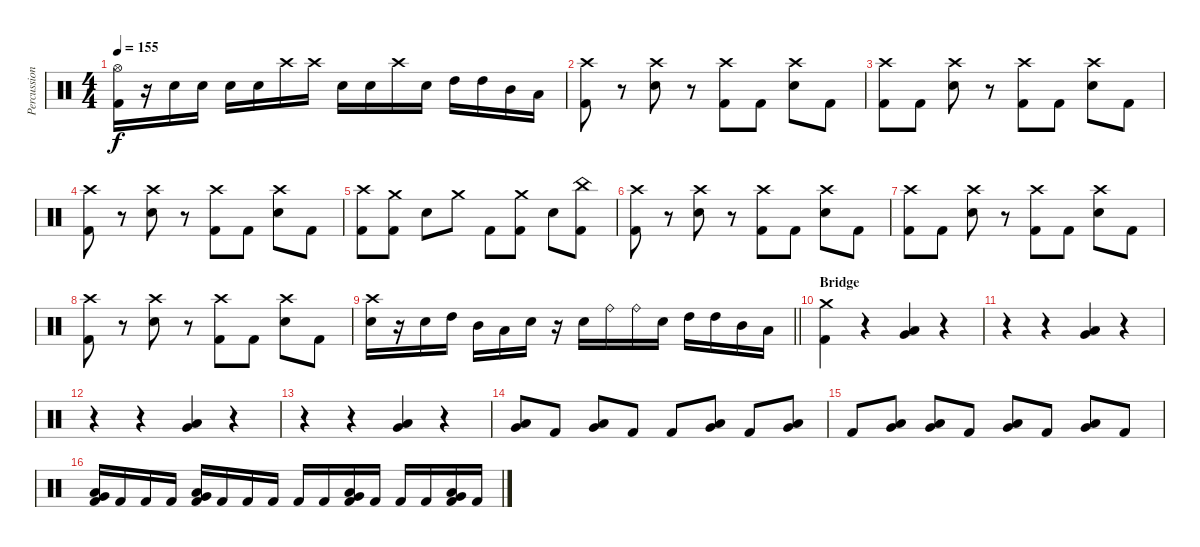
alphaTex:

\track ("Percussion" "Percussion") {instrument percussion}
\staff {score}
\articulation defaults
\ts (4 4)
\tempo 155
\clef neutral
\ks c
("Hi-Hat (open)" "Kick (hit) 2").16{dy f} r.16 "Snare (hit) 2".16 "Snare (hit) 2".16 "Snare (hit) 2".16 "Snare (hit) 2".16 "Crash high (hit)".16 "Crash high (hit)".16 "Snare (hit) 2".16 "Snare (hit) 2".16 "Crash high (hit)".16 "Snare (hit) 2".16 "High Tom (hit)".16 "High Tom (hit)".16 "Mid Tom (hit)".16 "Low Tom (hit)".16 |
("Crash high (hit)" "Kick (hit) 2").8 r.8 ("Crash high (hit)" "Snare (hit) 2").8 r.8 ("Crash high (hit)" "Kick (hit) 2").8 "Kick (hit) 2".8 ("Crash high (hit)" "Snare (hit) 2").8 "Kick (hit) 2".8 |
("Crash high (hit)" "Kick (hit) 2").8 "Kick (hit) 2".8 ("Crash high (hit)" "Snare (hit) 2").8 r.8 ("Crash high (hit)" "Kick (hit) 2").8 "Kick (hit) 2".8 ("Crash high (hit)" "Snare (hit) 2").8 "Kick (hit) 2".8 |
("Crash high (hit)" "Kick (hit) 2").8 r.8 ("Crash high (hit)" "Snare (hit) 2").8 r.8 ("Crash high (hit)" "Kick (hit) 2").8 "Kick (hit) 2".8 ("Crash high (hit)" "Snare (hit) 2").8 "Kick (hit) 2".8 |
("Crash high (hit)" "Kick (hit) 2").8 ("Crash medium (hit)" "Kick (hit) 2").8 "Snare (hit) 2".8 "Crash medium (hit)".8 "Kick (hit) 2".8 ("Crash medium (hit)" "Kick (hit) 2").8 "Snare (hit) 2".8 ("China (hit)" "Kick (hit) 2").8 |
("Crash high (hit)" "Kick (hit) 2").8 r.8 ("Crash high (hit)" "Snare (hit) 2").8 r.8 ("Crash high (hit)" "Kick (hit) 2").8 "Kick (hit) 2".8 ("Crash high (hit)" "Snare (hit) 2").8 "Kick (hit) 2".8 |
("Crash high (hit)" "Kick (hit) 2").8 "Kick (hit) 2".8 ("Crash high (hit)" "Snare (hit) 2").8 r.8 ("Crash high (hit)" "Kick (hit) 2").8 "Kick (hit) 2".8 ("Crash high (hit)" "Snare (hit) 2").8 "Kick (hit) 2".8 |
("Crash high (hit)" "Kick (hit) 2").8 r.8 ("Crash high (hit)" "Snare (hit) 2").8 r.8 ("Crash high (hit)" "Kick (hit) 2").8 "Kick (hit) 2".8 ("Crash high (hit)" "Snare (hit) 2").8 "Kick (hit) 2".8 |
\barLineRight lightlight
("Crash high (hit)" "Snare (hit) 2").16 r.16 "Snare (hit) 2".16 "High Tom (hit)".16 "Mid Tom (hit)".16 "Low Tom (hit)".16 "Snare (hit) 2".16 r.16 "Snare (hit) 2".16 "Ride (bell)".16 "Ride (bell)".16 "Snare (hit) 2".16 "High Tom (hit)".16 "High Tom (hit)".16 "Mid Tom (hit)".16 "Low Tom (hit)".16 |
\section ("" "Bridge")
("Crash medium (hit)" "Kick (hit) 2").4 r.4 ("Very Low Tom (hit)" "Low Tom (hit)").4 r.4 |
r.4 r.4 ("Very Low Tom (hit)" "Low Tom (hit)").4 r.4 |
r.4 r.4 ("Very Low Tom (hit)" "Low Tom (hit)").4 r.4 |
r.4 r.4 ("Very Low Tom (hit)" "Low Tom (hit)").4 r.4 |
("Very Low Tom (hit)" "Low Tom (hit)").8 "Kick (hit) 2".8 ("Very Low Tom (hit)" "Low Tom (hit)").8 "Kick (hit) 2".8 "Kick (hit) 2".8 ("Very Low Tom (hit)" "Low Tom (hit)").8 "Kick (hit) 2".8 ("Very Low Tom (hit)" "Low Tom (hit)").8 |
"Kick (hit) 2".8 ("Very Low Tom (hit)" "Low Tom (hit)").8 ("Very Low Tom (hit)" "Low Tom (hit)").8 "Kick (hit) 2".8 ("Very Low Tom (hit)" "Low Tom (hit)").8 "Kick (hit) 2".8 ("Very Low Tom (hit)" "Low Tom (hit)").8 "Kick (hit) 2".8 |
("Very Low Tom (hit)" "Low Tom (hit)" "Kick (hit) 2").16 "Kick (hit) 2".16 "Kick (hit) 2".16 "Kick (hit) 2".16 ("Very Low Tom (hit)" "Low Tom (hit)" "Kick (hit) 2").16 "Kick (hit) 2".16 "Kick (hit) 2".16 "Kick (hit) 2".16 "Kick (hit) 2".16 "Kick (hit) 2".16 ("Very Low Tom (hit)" "Low Tom (hit)" "Kick (hit) 2").16 "Kick (hit) 2".16 "Kick (hit) 2".16 "Kick (hit) 2".16 ("Very Low Tom (hit)" "Low Tom (hit)" "Kick (hit) 2").16 "Kick (hit) 2".16
